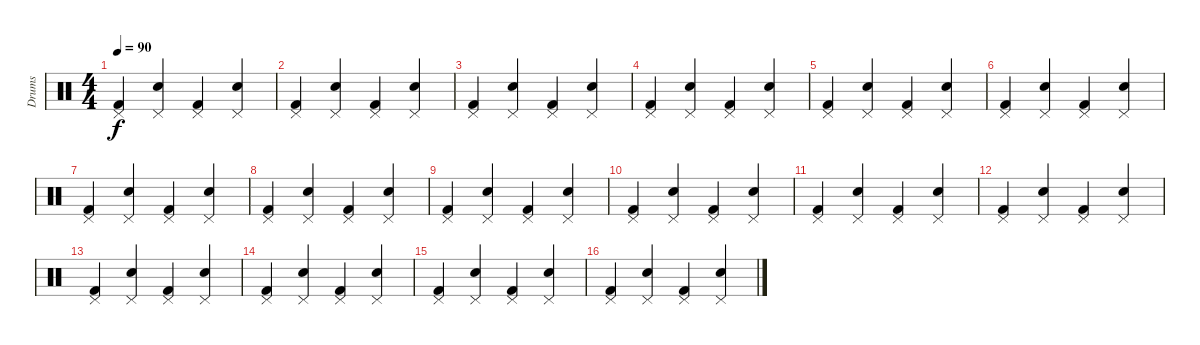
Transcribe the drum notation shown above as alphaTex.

\track ("Drums" "Drums") {instrument percussion}
\staff {score}
\articulation defaults
\ts (4 4)
\tempo 90
\clef neutral
\ks c
("Pedal Hi-Hat (hit)" "Kick (hit) 2").4{dy f} ("Pedal Hi-Hat (hit)" "Electric Snare (hit)").4 ("Pedal Hi-Hat (hit)" "Kick (hit) 2").4 ("Pedal Hi-Hat (hit)" "Electric Snare (hit)").4 |
("Pedal Hi-Hat (hit)" "Kick (hit) 2").4 ("Pedal Hi-Hat (hit)" "Electric Snare (hit)").4 ("Pedal Hi-Hat (hit)" "Kick (hit) 2").4 ("Pedal Hi-Hat (hit)" "Electric Snare (hit)").4 |
("Pedal Hi-Hat (hit)" "Kick (hit) 2").4 ("Pedal Hi-Hat (hit)" "Electric Snare (hit)").4 ("Pedal Hi-Hat (hit)" "Kick (hit) 2").4 ("Pedal Hi-Hat (hit)" "Electric Snare (hit)").4 |
("Pedal Hi-Hat (hit)" "Kick (hit) 2").4 ("Pedal Hi-Hat (hit)" "Electric Snare (hit)").4 ("Pedal Hi-Hat (hit)" "Kick (hit) 2").4 ("Pedal Hi-Hat (hit)" "Electric Snare (hit)").4 |
("Pedal Hi-Hat (hit)" "Kick (hit) 2").4 ("Pedal Hi-Hat (hit)" "Electric Snare (hit)").4 ("Pedal Hi-Hat (hit)" "Kick (hit) 2").4 ("Pedal Hi-Hat (hit)" "Electric Snare (hit)").4 |
("Pedal Hi-Hat (hit)" "Kick (hit) 2").4 ("Pedal Hi-Hat (hit)" "Electric Snare (hit)").4 ("Pedal Hi-Hat (hit)" "Kick (hit) 2").4 ("Pedal Hi-Hat (hit)" "Electric Snare (hit)").4 |
("Pedal Hi-Hat (hit)" "Kick (hit) 2").4 ("Pedal Hi-Hat (hit)" "Electric Snare (hit)").4 ("Pedal Hi-Hat (hit)" "Kick (hit) 2").4 ("Pedal Hi-Hat (hit)" "Electric Snare (hit)").4 |
("Pedal Hi-Hat (hit)" "Kick (hit) 2").4 ("Pedal Hi-Hat (hit)" "Electric Snare (hit)").4 ("Pedal Hi-Hat (hit)" "Kick (hit) 2").4 ("Pedal Hi-Hat (hit)" "Electric Snare (hit)").4 |
("Pedal Hi-Hat (hit)" "Kick (hit) 2").4 ("Pedal Hi-Hat (hit)" "Electric Snare (hit)").4 ("Pedal Hi-Hat (hit)" "Kick (hit) 2").4 ("Pedal Hi-Hat (hit)" "Electric Snare (hit)").4 |
("Pedal Hi-Hat (hit)" "Kick (hit) 2").4 ("Pedal Hi-Hat (hit)" "Electric Snare (hit)").4 ("Pedal Hi-Hat (hit)" "Kick (hit) 2").4 ("Pedal Hi-Hat (hit)" "Electric Snare (hit)").4 |
("Pedal Hi-Hat (hit)" "Kick (hit) 2").4 ("Pedal Hi-Hat (hit)" "Electric Snare (hit)").4 ("Pedal Hi-Hat (hit)" "Kick (hit) 2").4 ("Pedal Hi-Hat (hit)" "Electric Snare (hit)").4 |
("Pedal Hi-Hat (hit)" "Kick (hit) 2").4 ("Pedal Hi-Hat (hit)" "Electric Snare (hit)").4 ("Pedal Hi-Hat (hit)" "Kick (hit) 2").4 ("Pedal Hi-Hat (hit)" "Electric Snare (hit)").4 |
("Pedal Hi-Hat (hit)" "Kick (hit) 2").4 ("Pedal Hi-Hat (hit)" "Electric Snare (hit)").4 ("Pedal Hi-Hat (hit)" "Kick (hit) 2").4 ("Pedal Hi-Hat (hit)" "Electric Snare (hit)").4 |
("Pedal Hi-Hat (hit)" "Kick (hit) 2").4 ("Pedal Hi-Hat (hit)" "Electric Snare (hit)").4 ("Pedal Hi-Hat (hit)" "Kick (hit) 2").4 ("Pedal Hi-Hat (hit)" "Electric Snare (hit)").4 |
("Pedal Hi-Hat (hit)" "Kick (hit) 2").4 ("Pedal Hi-Hat (hit)" "Electric Snare (hit)").4 ("Pedal Hi-Hat (hit)" "Kick (hit) 2").4 ("Pedal Hi-Hat (hit)" "Electric Snare (hit)").4 |
("Pedal Hi-Hat (hit)" "Kick (hit) 2").4 ("Pedal Hi-Hat (hit)" "Electric Snare (hit)").4 ("Pedal Hi-Hat (hit)" "Kick (hit) 2").4 ("Pedal Hi-Hat (hit)" "Electric Snare (hit)").4
